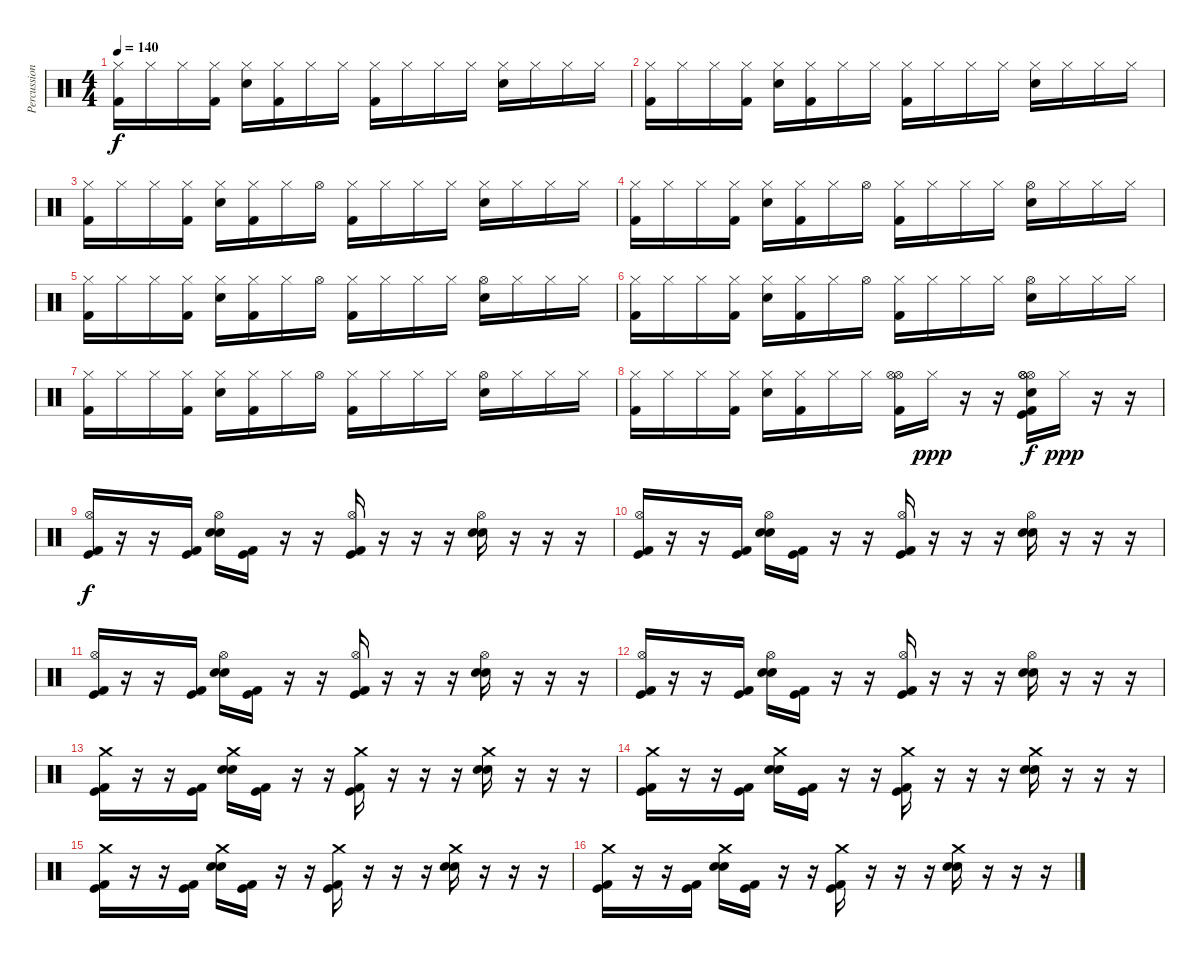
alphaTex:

\track ("Percussion" "Percussion") {instrument percussion}
\staff {score}
\articulation defaults
\ts (4 4)
\tempo 140
\clef neutral
\ks c
("Hi-Hat (closed)" "Kick (hit) 2").16{dy f} "Hi-Hat (closed)".16 "Hi-Hat (closed)".16 ("Hi-Hat (closed)" "Kick (hit) 2").16 ("Hi-Hat (closed)" "Electric Snare (hit)").16 ("Hi-Hat (closed)" "Kick (hit) 2").16 "Hi-Hat (closed)".16 "Hi-Hat (closed)".16 ("Hi-Hat (closed)" "Kick (hit) 2").16 "Hi-Hat (closed)".16 "Hi-Hat (closed)".16 "Hi-Hat (closed)".16 ("Hi-Hat (closed)" "Electric Snare (hit)").16 "Hi-Hat (closed)".16 "Hi-Hat (closed)".16 "Hi-Hat (closed)".16 |
("Hi-Hat (closed)" "Kick (hit) 2").16 "Hi-Hat (closed)".16 "Hi-Hat (closed)".16 ("Hi-Hat (closed)" "Kick (hit) 2").16 ("Hi-Hat (closed)" "Electric Snare (hit)").16 ("Hi-Hat (closed)" "Kick (hit) 2").16 "Hi-Hat (closed)".16 "Hi-Hat (closed)".16 ("Hi-Hat (closed)" "Kick (hit) 2").16 "Hi-Hat (closed)".16 "Hi-Hat (closed)".16 "Hi-Hat (closed)".16 ("Hi-Hat (closed)" "Electric Snare (hit)").16 "Hi-Hat (closed)".16 "Hi-Hat (closed)".16 "Hi-Hat (closed)".16 |
("Hi-Hat (closed)" "Kick (hit) 2").16 "Hi-Hat (closed)".16 "Hi-Hat (closed)".16 ("Hi-Hat (closed)" "Kick (hit) 2").16 ("Hi-Hat (closed)" "Electric Snare (hit)").16 ("Hi-Hat (closed)" "Kick (hit) 2").16 "Hi-Hat (closed)".16 "Hi-Hat (open)".16 ("Hi-Hat (closed)" "Kick (hit) 2").16 "Hi-Hat (closed)".16 "Hi-Hat (closed)".16 "Hi-Hat (closed)".16 ("Hi-Hat (closed)" "Electric Snare (hit)").16 "Hi-Hat (closed)".16 "Hi-Hat (closed)".16 "Hi-Hat (closed)".16 |
("Hi-Hat (closed)" "Kick (hit) 2").16 "Hi-Hat (closed)".16 "Hi-Hat (closed)".16 ("Hi-Hat (closed)" "Kick (hit) 2").16 ("Hi-Hat (closed)" "Electric Snare (hit)").16 ("Hi-Hat (closed)" "Kick (hit) 2").16 "Hi-Hat (closed)".16 "Hi-Hat (open)".16 ("Hi-Hat (closed)" "Kick (hit) 2").16 "Hi-Hat (closed)".16 "Hi-Hat (closed)".16 "Hi-Hat (closed)".16 ("Hi-Hat (open)" "Electric Snare (hit)").16 "Hi-Hat (closed)".16 "Hi-Hat (closed)".16 "Hi-Hat (closed)".16 |
("Hi-Hat (closed)" "Kick (hit) 2").16 "Hi-Hat (closed)".16 "Hi-Hat (closed)".16 ("Hi-Hat (closed)" "Kick (hit) 2").16 ("Hi-Hat (closed)" "Electric Snare (hit)").16 ("Hi-Hat (closed)" "Kick (hit) 2").16 "Hi-Hat (closed)".16 "Hi-Hat (open)".16 ("Hi-Hat (closed)" "Kick (hit) 2").16 "Hi-Hat (closed)".16 "Hi-Hat (closed)".16 "Hi-Hat (closed)".16 ("Hi-Hat (open)" "Electric Snare (hit)").16 "Hi-Hat (closed)".16 "Hi-Hat (closed)".16 "Hi-Hat (closed)".16 |
("Hi-Hat (closed)" "Kick (hit) 2").16 "Hi-Hat (closed)".16 "Hi-Hat (closed)".16 ("Hi-Hat (closed)" "Kick (hit) 2").16 ("Hi-Hat (closed)" "Electric Snare (hit)").16 ("Hi-Hat (closed)" "Kick (hit) 2").16 "Hi-Hat (closed)".16 "Hi-Hat (open)".16 ("Hi-Hat (closed)" "Kick (hit) 2").16 "Hi-Hat (closed)".16 "Hi-Hat (closed)".16 "Hi-Hat (closed)".16 ("Hi-Hat (open)" "Electric Snare (hit)").16 "Hi-Hat (closed)".16 "Hi-Hat (closed)".16 "Hi-Hat (closed)".16 |
("Hi-Hat (closed)" "Kick (hit) 2").16 "Hi-Hat (closed)".16 "Hi-Hat (closed)".16 ("Hi-Hat (closed)" "Kick (hit) 2").16 ("Hi-Hat (closed)" "Electric Snare (hit)").16 ("Hi-Hat (closed)" "Kick (hit) 2").16 "Hi-Hat (closed)".16 "Hi-Hat (open)".16 ("Hi-Hat (closed)" "Kick (hit) 2").16 "Hi-Hat (closed)".16 "Hi-Hat (closed)".16 "Hi-Hat (closed)".16 ("Hi-Hat (open)" "Electric Snare (hit)").16 "Hi-Hat (closed)".16 "Hi-Hat (closed)".16 "Hi-Hat (closed)".16 |
("Hi-Hat (closed)" "Kick (hit) 2").16 "Hi-Hat (closed)".16 "Hi-Hat (closed)".16 ("Hi-Hat (closed)" "Kick (hit) 2").16 ("Hi-Hat (closed)" "Electric Snare (hit)").16 ("Hi-Hat (closed)" "Kick (hit) 2").16 "Hi-Hat (closed)".16 "Hi-Hat (closed)".16 ("Hi-Hat (open)" "Hi-Hat (open)" "Kick (hit) 2").16 "Hi-Hat (closed)".16{dy ppp} r.16 r.16 ("Hi-Hat (open)" "Electric Snare (hit)" "Hi-Hat (open)" "Hi-Hat (open)" "Kick (hit)" "Kick (hit) 2").16{dy f} "Hi-Hat (closed)".16{dy ppp} r.16 r.16 |
("Hi-Hat (open)" "Kick (hit)" "Kick (hit) 2").16{dy f} r.16 r.16 ("Kick (hit)" "Kick (hit) 2").16 ("Hi-Hat (open)" "Electric Snare (hit)" "Electric Snare (hit)").16 ("Kick (hit)" "Kick (hit) 2").16 r.16 r.16 ("Hi-Hat (open)" "Kick (hit)" "Kick (hit) 2").16 r.16 r.16 r.16 ("Hi-Hat (open)" "Electric Snare (hit)" "Electric Snare (hit)").16 r.16 r.16 r.16 |
("Hi-Hat (open)" "Kick (hit)" "Kick (hit) 2").16 r.16 r.16 ("Kick (hit)" "Kick (hit) 2").16 ("Hi-Hat (open)" "Electric Snare (hit)" "Electric Snare (hit)").16 ("Kick (hit)" "Kick (hit) 2").16 r.16 r.16 ("Hi-Hat (open)" "Kick (hit)" "Kick (hit) 2").16 r.16 r.16 r.16 ("Hi-Hat (open)" "Electric Snare (hit)" "Electric Snare (hit)").16 r.16 r.16 r.16 |
("Hi-Hat (open)" "Kick (hit)" "Kick (hit) 2").16 r.16 r.16 ("Kick (hit)" "Kick (hit) 2").16 ("Hi-Hat (open)" "Electric Snare (hit)" "Electric Snare (hit)").16 ("Kick (hit)" "Kick (hit) 2").16 r.16 r.16 ("Hi-Hat (open)" "Kick (hit)" "Kick (hit) 2").16 r.16 r.16 r.16 ("Hi-Hat (open)" "Electric Snare (hit)" "Electric Snare (hit)").16 r.16 r.16 r.16 |
("Hi-Hat (open)" "Kick (hit)" "Kick (hit) 2").16 r.16 r.16 ("Kick (hit)" "Kick (hit) 2").16 ("Hi-Hat (open)" "Electric Snare (hit)" "Electric Snare (hit)").16 ("Kick (hit)" "Kick (hit) 2").16 r.16 r.16 ("Hi-Hat (open)" "Kick (hit)" "Kick (hit) 2").16 r.16 r.16 r.16 ("Hi-Hat (open)" "Electric Snare (hit)" "Electric Snare (hit)").16 r.16 r.16 r.16 |
("Crash medium (hit)" "Kick (hit)" "Kick (hit) 2").16 r.16 r.16 ("Kick (hit)" "Kick (hit) 2").16 ("Crash medium (hit)" "Electric Snare (hit)" "Electric Snare (hit)").16 ("Kick (hit)" "Kick (hit) 2").16 r.16 r.16 ("Crash medium (hit)" "Kick (hit)" "Kick (hit) 2").16 r.16 r.16 r.16 ("Crash medium (hit)" "Electric Snare (hit)" "Electric Snare (hit)").16 r.16 r.16 r.16 |
("Crash medium (hit)" "Kick (hit)" "Kick (hit) 2").16 r.16 r.16 ("Kick (hit)" "Kick (hit) 2").16 ("Crash medium (hit)" "Electric Snare (hit)" "Electric Snare (hit)").16 ("Kick (hit)" "Kick (hit) 2").16 r.16 r.16 ("Crash medium (hit)" "Kick (hit)" "Kick (hit) 2").16 r.16 r.16 r.16 ("Crash medium (hit)" "Electric Snare (hit)" "Electric Snare (hit)").16 r.16 r.16 r.16 |
("Crash medium (hit)" "Kick (hit)" "Kick (hit) 2").16 r.16 r.16 ("Kick (hit)" "Kick (hit) 2").16 ("Crash medium (hit)" "Electric Snare (hit)" "Electric Snare (hit)").16 ("Kick (hit)" "Kick (hit) 2").16 r.16 r.16 ("Crash medium (hit)" "Kick (hit)" "Kick (hit) 2").16 r.16 r.16 r.16 ("Crash medium (hit)" "Electric Snare (hit)" "Electric Snare (hit)").16 r.16 r.16 r.16 |
("Crash medium (hit)" "Kick (hit)" "Kick (hit) 2").16 r.16 r.16 ("Kick (hit)" "Kick (hit) 2").16 ("Crash medium (hit)" "Electric Snare (hit)" "Electric Snare (hit)").16 ("Kick (hit)" "Kick (hit) 2").16 r.16 r.16 ("Crash medium (hit)" "Kick (hit)" "Kick (hit) 2").16 r.16 r.16 r.16 ("Crash medium (hit)" "Electric Snare (hit)" "Electric Snare (hit)").16 r.16 r.16 r.16
